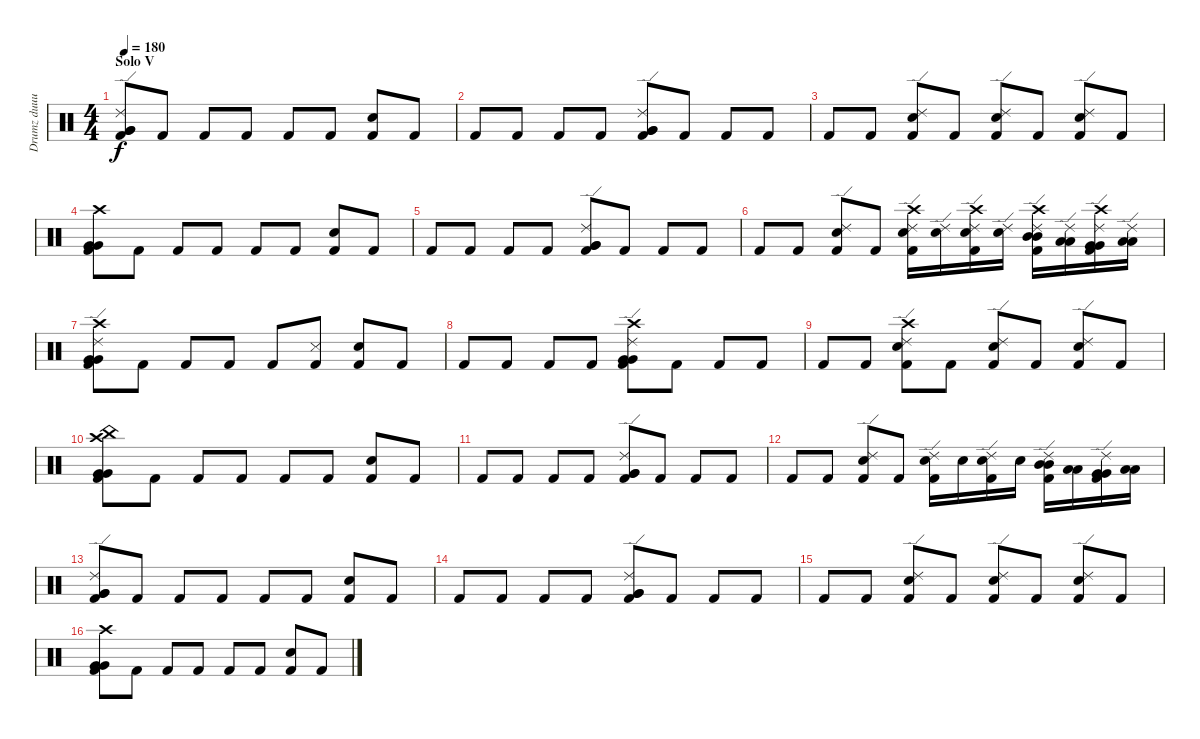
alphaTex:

\track ("Drumz duuuuude" "Drumz duuu") {instrument percussion}
\staff {score}
\articulation defaults
\ts (4 4)
\section ("" "Solo V")
\tempo 180
\clef neutral
\ks c
("Ride (edge) 2" "Kick (hit) 2" "Very Low Tom (hit)" "Very Low Tom (hit)").8{dy f} "Kick (hit) 2".8 "Kick (hit) 2".8 "Kick (hit) 2".8 "Kick (hit) 2".8 "Kick (hit) 2".8 ("Kick (hit) 2" "Snare (hit) 2").8 "Kick (hit) 2".8 |
"Kick (hit) 2".8 "Kick (hit) 2".8 "Kick (hit) 2".8 "Kick (hit) 2".8 ("Ride (edge) 2" "Kick (hit) 2" "Very Low Tom (hit)" "Very Low Tom (hit)").8 "Kick (hit) 2".8 "Kick (hit) 2".8 "Kick (hit) 2".8 |
"Kick (hit) 2".8 "Kick (hit) 2".8 ("Ride (edge) 2" "Kick (hit) 2" "Snare (hit) 2").8 "Kick (hit) 2".8 ("Ride (edge) 2" "Kick (hit) 2" "Electric Snare (hit)").8 "Kick (hit) 2".8 ("Ride (edge) 2" "Kick (hit) 2" "Electric Snare (hit)").8 "Kick (hit) 2".8 |
("Crash high (hit)" "Kick (hit) 2" "Very Low Tom (hit)" "Very Low Tom (hit)").8 "Kick (hit) 2".8 "Kick (hit) 2".8 "Kick (hit) 2".8 "Kick (hit) 2".8 "Kick (hit) 2".8 ("Kick (hit) 2" "Snare (hit) 2").8 "Kick (hit) 2".8 |
"Kick (hit) 2".8 "Kick (hit) 2".8 "Kick (hit) 2".8 "Kick (hit) 2".8 ("Ride (edge) 2" "Kick (hit) 2" "Very Low Tom (hit)" "Very Low Tom (hit)").8 "Kick (hit) 2".8 "Kick (hit) 2".8 "Kick (hit) 2".8 |
"Kick (hit) 2".8 "Kick (hit) 2".8 ("Ride (edge) 2" "Kick (hit) 2" "Snare (hit) 2").8 "Kick (hit) 2".8 ("Ride (edge) 2" "Crash high (hit)" "Kick (hit) 2" "Electric Snare (hit)").16 ("Ride (edge) 2" "Electric Snare (hit)").16 ("Ride (edge) 2" "Crash high (hit)" "Kick (hit) 2" "Electric Snare (hit)").16 ("Ride (edge) 2" "Electric Snare (hit)").16 ("Ride (edge) 2" "Crash high (hit)" "Kick (hit) 2" "Mid Tom (hit)" "Mid Tom (hit)").16 ("Ride (edge) 2" "Low Tom (hit)" "Low Tom (hit)").16 ("Ride (edge) 2" "Crash high (hit)" "Kick (hit) 2" "Very Low Tom (hit)" "Very Low Tom (hit)").16 ("Ride (edge) 2" "Low Floor Tom (hit)" "Low Floor Tom (hit)").16 |
("Ride (edge) 2" "Crash high (hit)" "Kick (hit) 2" "Very Low Tom (hit)" "Very Low Tom (hit)").8 "Kick (hit) 2".8 "Kick (hit) 2".8 "Kick (hit) 2".8 "Kick (hit) 2".8 ("Kick (hit) 2" "Snare (side stick) 3").8 ("Kick (hit) 2" "Snare (hit) 2").8 "Kick (hit) 2".8 |
"Kick (hit) 2".8 "Kick (hit) 2".8 "Kick (hit) 2".8 "Kick (hit) 2".8 ("Ride (edge) 2" "Crash high (hit)" "Kick (hit) 2" "Very Low Tom (hit)" "Very Low Tom (hit)").8 "Kick (hit) 2".8 "Kick (hit) 2".8 "Kick (hit) 2".8 |
"Kick (hit) 2".8 "Kick (hit) 2".8 ("Ride (edge) 2" "Crash high (hit)" "Kick (hit) 2" "Snare (hit) 2").8 "Kick (hit) 2".8 ("Ride (edge) 2" "Kick (hit) 2" "Electric Snare (hit)").8 "Kick (hit) 2".8 ("Ride (edge) 2" "Kick (hit) 2" "Electric Snare (hit)").8 "Kick (hit) 2".8 |
("Crash high (hit)" "China (hit)" "Kick (hit) 2" "Very Low Tom (hit)" "Very Low Tom (hit)").8 "Kick (hit) 2".8 "Kick (hit) 2".8 "Kick (hit) 2".8 "Kick (hit) 2".8 "Kick (hit) 2".8 ("Kick (hit) 2" "Snare (hit) 2").8 "Kick (hit) 2".8 |
"Kick (hit) 2".8 "Kick (hit) 2".8 "Kick (hit) 2".8 "Kick (hit) 2".8 ("Ride (edge) 2" "Kick (hit) 2" "Very Low Tom (hit)" "Very Low Tom (hit)").8 "Kick (hit) 2".8 "Kick (hit) 2".8 "Kick (hit) 2".8 |
"Kick (hit) 2".8 "Kick (hit) 2".8 ("Ride (edge) 2" "Kick (hit) 2" "Snare (hit) 2").8 "Kick (hit) 2".8 ("Ride (edge) 2" "Kick (hit) 2" "Electric Snare (hit)").16 "Electric Snare (hit)".16 ("Ride (edge) 2" "Kick (hit) 2" "Electric Snare (hit)").16 "Electric Snare (hit)".16 ("Ride (edge) 2" "Kick (hit) 2" "Mid Tom (hit)" "Mid Tom (hit)").16 ("Low Tom (hit)" "Low Tom (hit)").16 ("Ride (edge) 2" "Kick (hit) 2" "Very Low Tom (hit)" "Very Low Tom (hit)").16 ("Low Floor Tom (hit)" "Low Floor Tom (hit)").16 |
("Ride (edge) 2" "Kick (hit) 2" "Very Low Tom (hit)" "Very Low Tom (hit)").8 "Kick (hit) 2".8 "Kick (hit) 2".8 "Kick (hit) 2".8 "Kick (hit) 2".8 "Kick (hit) 2".8 ("Kick (hit) 2" "Snare (hit) 2").8 "Kick (hit) 2".8 |
"Kick (hit) 2".8 "Kick (hit) 2".8 "Kick (hit) 2".8 "Kick (hit) 2".8 ("Ride (edge) 2" "Kick (hit) 2" "Very Low Tom (hit)" "Very Low Tom (hit)").8 "Kick (hit) 2".8 "Kick (hit) 2".8 "Kick (hit) 2".8 |
"Kick (hit) 2".8 "Kick (hit) 2".8 ("Ride (edge) 2" "Kick (hit) 2" "Snare (hit) 2").8 "Kick (hit) 2".8 ("Ride (edge) 2" "Kick (hit) 2" "Electric Snare (hit)").8 "Kick (hit) 2".8 ("Ride (edge) 2" "Kick (hit) 2" "Electric Snare (hit)").8 "Kick (hit) 2".8 |
("Crash high (hit)" "Kick (hit) 2" "Very Low Tom (hit)" "Very Low Tom (hit)").8 "Kick (hit) 2".8 "Kick (hit) 2".8 "Kick (hit) 2".8 "Kick (hit) 2".8 "Kick (hit) 2".8 ("Kick (hit) 2" "Snare (hit) 2").8 "Kick (hit) 2".8
